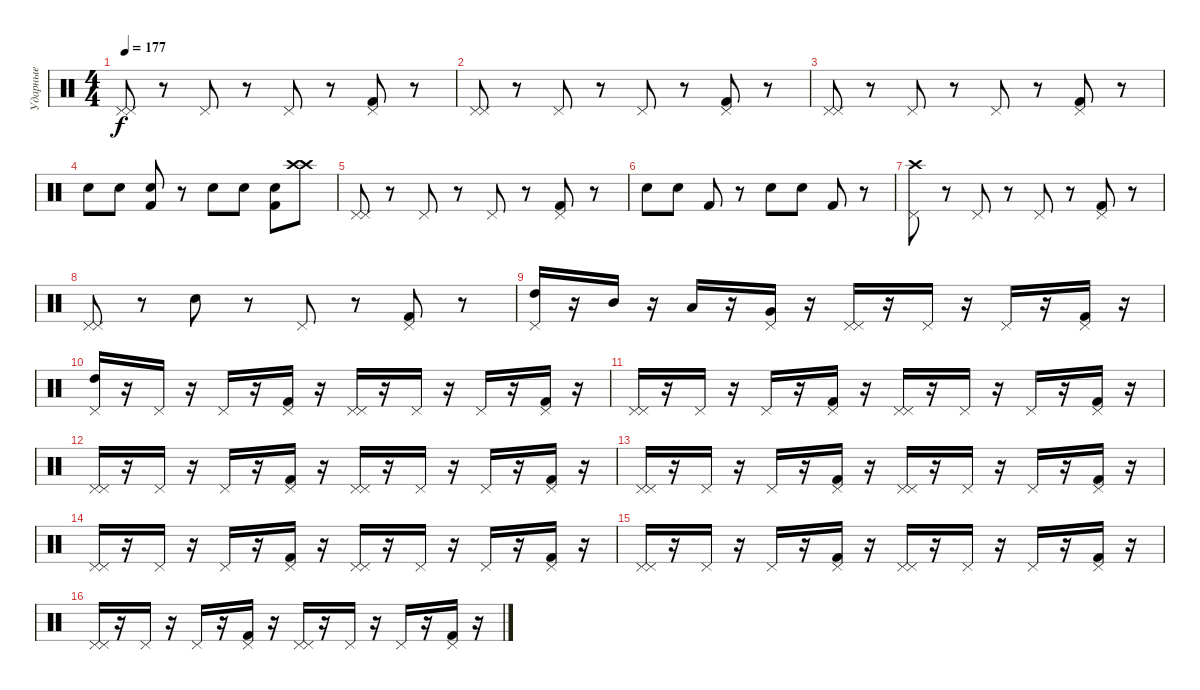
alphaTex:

\track ("Ударные" "Ударные") {instrument percussion}
\staff {score}
\articulation defaults
\ts (4 4)
\tempo 177
\clef neutral
\ks c
("Pedal Hi-Hat (hit)" "Pedal Hi-Hat (hit)").8{dy f} r.8 "Pedal Hi-Hat (hit)".8 r.8 "Pedal Hi-Hat (hit)".8 r.8 ("Kick (hit) 2" "Pedal Hi-Hat (hit)").8 r.8 |
("Pedal Hi-Hat (hit)" "Pedal Hi-Hat (hit)").8 r.8 "Pedal Hi-Hat (hit)".8 r.8 "Pedal Hi-Hat (hit)".8 r.8 ("Kick (hit) 2" "Pedal Hi-Hat (hit)").8 r.8 |
("Pedal Hi-Hat (hit)" "Pedal Hi-Hat (hit)").8 r.8 "Pedal Hi-Hat (hit)".8 r.8 "Pedal Hi-Hat (hit)".8 r.8 ("Kick (hit) 2" "Pedal Hi-Hat (hit)").8 r.8 |
"Electric Snare (hit)".8 "Snare (hit) 2".8 ("Kick (hit) 2" "Snare (hit)").8 r.8 "Electric Snare (hit)".8 "Snare (hit) 2".8 ("Kick (hit) 2" "Snare (hit)").8 ("Crash high (hit)" "Crash high (hit)").8 |
("Pedal Hi-Hat (hit)" "Pedal Hi-Hat (hit)").8 r.8 "Pedal Hi-Hat (hit)".8 r.8 "Pedal Hi-Hat (hit)".8 r.8 ("Kick (hit) 2" "Pedal Hi-Hat (hit)").8 r.8 |
"Electric Snare (hit)".8 "Snare (hit) 2".8 "Kick (hit) 2".8 r.8 "Electric Snare (hit)".8 "Snare (hit) 2".8 "Kick (hit) 2".8 r.8 |
("Crash high (hit)" "Pedal Hi-Hat (hit)").8 r.8 "Pedal Hi-Hat (hit)".8 r.8 "Pedal Hi-Hat (hit)".8 r.8 ("Kick (hit) 2" "Pedal Hi-Hat (hit)").8 r.8 |
("Pedal Hi-Hat (hit)" "Pedal Hi-Hat (hit)").8 r.8 "Electric Snare (hit)".8 r.8 "Pedal Hi-Hat (hit)".8 r.8 ("Kick (hit) 2" "Pedal Hi-Hat (hit)").8 r.8 |
("High Tom (hit)" "Pedal Hi-Hat (hit)").16 r.16 "Mid Tom (hit)".16 r.16 "Low Tom (hit)".16 r.16 ("Very Low Tom (hit)" "Pedal Hi-Hat (hit)").16 r.16 ("Pedal Hi-Hat (hit)" "Pedal Hi-Hat (hit)").16 r.16 "Pedal Hi-Hat (hit)".16 r.16 "Pedal Hi-Hat (hit)".16 r.16 ("Kick (hit) 2" "Pedal Hi-Hat (hit)").16 r.16 |
("High Tom (hit)" "Pedal Hi-Hat (hit)").16 r.16 "Pedal Hi-Hat (hit)".16 r.16 "Pedal Hi-Hat (hit)".16 r.16 ("Kick (hit) 2" "Pedal Hi-Hat (hit)").16 r.16 ("Pedal Hi-Hat (hit)" "Pedal Hi-Hat (hit)").16 r.16 "Pedal Hi-Hat (hit)".16 r.16 "Pedal Hi-Hat (hit)".16 r.16 ("Kick (hit) 2" "Pedal Hi-Hat (hit)").16 r.16 |
("Pedal Hi-Hat (hit)" "Pedal Hi-Hat (hit)").16 r.16 "Pedal Hi-Hat (hit)".16 r.16 "Pedal Hi-Hat (hit)".16 r.16 ("Kick (hit) 2" "Pedal Hi-Hat (hit)").16 r.16 ("Pedal Hi-Hat (hit)" "Pedal Hi-Hat (hit)").16 r.16 "Pedal Hi-Hat (hit)".16 r.16 "Pedal Hi-Hat (hit)".16 r.16 ("Kick (hit) 2" "Pedal Hi-Hat (hit)").16 r.16 |
("Pedal Hi-Hat (hit)" "Pedal Hi-Hat (hit)").16 r.16 "Pedal Hi-Hat (hit)".16 r.16 "Pedal Hi-Hat (hit)".16 r.16 ("Kick (hit) 2" "Pedal Hi-Hat (hit)").16 r.16 ("Pedal Hi-Hat (hit)" "Pedal Hi-Hat (hit)").16 r.16 "Pedal Hi-Hat (hit)".16 r.16 "Pedal Hi-Hat (hit)".16 r.16 ("Kick (hit) 2" "Pedal Hi-Hat (hit)").16 r.16 |
("Pedal Hi-Hat (hit)" "Pedal Hi-Hat (hit)").16 r.16 "Pedal Hi-Hat (hit)".16 r.16 "Pedal Hi-Hat (hit)".16 r.16 ("Kick (hit) 2" "Pedal Hi-Hat (hit)").16 r.16 ("Pedal Hi-Hat (hit)" "Pedal Hi-Hat (hit)").16 r.16 "Pedal Hi-Hat (hit)".16 r.16 "Pedal Hi-Hat (hit)".16 r.16 ("Kick (hit) 2" "Pedal Hi-Hat (hit)").16 r.16 |
("Pedal Hi-Hat (hit)" "Pedal Hi-Hat (hit)").16 r.16 "Pedal Hi-Hat (hit)".16 r.16 "Pedal Hi-Hat (hit)".16 r.16 ("Kick (hit) 2" "Pedal Hi-Hat (hit)").16 r.16 ("Pedal Hi-Hat (hit)" "Pedal Hi-Hat (hit)").16 r.16 "Pedal Hi-Hat (hit)".16 r.16 "Pedal Hi-Hat (hit)".16 r.16 ("Kick (hit) 2" "Pedal Hi-Hat (hit)").16 r.16 |
("Pedal Hi-Hat (hit)" "Pedal Hi-Hat (hit)").16 r.16 "Pedal Hi-Hat (hit)".16 r.16 "Pedal Hi-Hat (hit)".16 r.16 ("Kick (hit) 2" "Pedal Hi-Hat (hit)").16 r.16 ("Pedal Hi-Hat (hit)" "Pedal Hi-Hat (hit)").16 r.16 "Pedal Hi-Hat (hit)".16 r.16 "Pedal Hi-Hat (hit)".16 r.16 ("Kick (hit) 2" "Pedal Hi-Hat (hit)").16 r.16 |
("Pedal Hi-Hat (hit)" "Pedal Hi-Hat (hit)").16 r.16 "Pedal Hi-Hat (hit)".16 r.16 "Pedal Hi-Hat (hit)".16 r.16 ("Kick (hit) 2" "Pedal Hi-Hat (hit)").16 r.16 ("Pedal Hi-Hat (hit)" "Pedal Hi-Hat (hit)").16 r.16 "Pedal Hi-Hat (hit)".16 r.16 "Pedal Hi-Hat (hit)".16 r.16 ("Kick (hit) 2" "Pedal Hi-Hat (hit)").16 r.16
